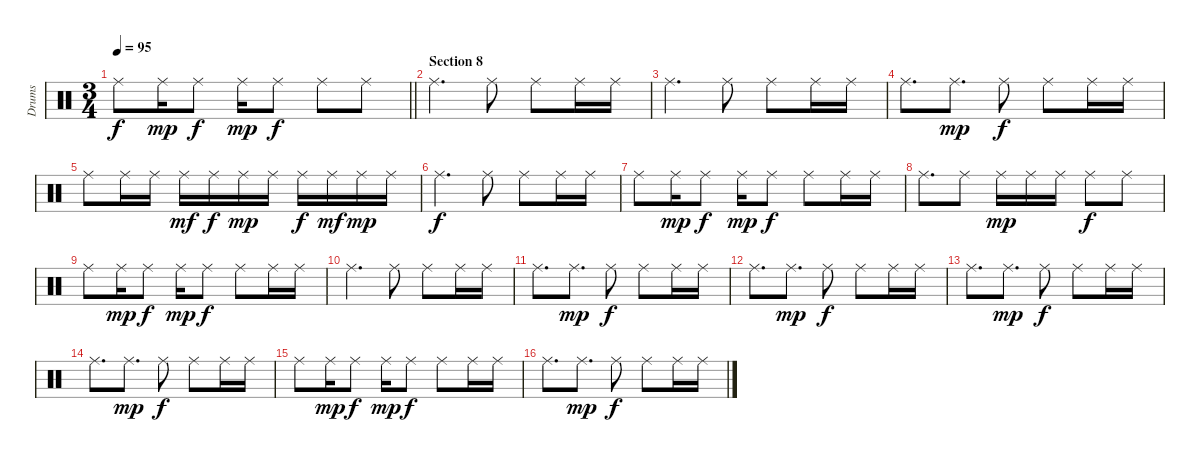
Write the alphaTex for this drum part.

\track ("Drums" "Drums") {instrument percussion}
\staff {score}
\articulation defaults
\ts (3 4)
\tempo 95
\clef neutral
\barLineRight lightlight
\ks c "Ride (middle)".8{dy f} "Ride (middle)".16{dy mp} "Ride (middle)".8{dy f} "Ride (middle)".16{dy mp} "Ride (middle)".8{dy f} "Ride (middle)".8 "Ride (middle)".8
|
\section ("" "Section 8")
"Ride (middle)".4{d} "Ride (middle)".8 "Ride (middle)".8 "Ride (middle)".16 "Ride (middle)".16 |
"Ride (middle)".4{d} "Ride (middle)".8 "Ride (middle)".8 "Ride (middle)".16 "Ride (middle)".16 |
"Ride (middle)".8{d} "Ride (middle)".8{d dy mp} "Ride (middle)".8{dy f} "Ride (middle)".8 "Ride (middle)".16 "Ride (middle)".16 |
"Ride (middle)".8 "Ride (middle)".16 "Ride (middle)".16 "Ride (middle)".16{dy mf} "Ride (middle)".16{dy f} "Ride (middle)".16{dy mp} "Ride (middle)".16 "Ride (middle)".16{dy f} "Ride (middle)".16{dy mf} "Ride (middle)".16{dy mp} "Ride (middle)".16 |
"Ride (middle)".4{d dy f} "Ride (middle)".8 "Ride (middle)".8 "Ride (middle)".16 "Ride (middle)".16 |
"Ride (middle)".8 "Ride (middle)".16{dy mp} "Ride (middle)".8{dy f} "Ride (middle)".16{dy mp} "Ride (middle)".8{dy f} "Ride (middle)".8 "Ride (middle)".16 "Ride (middle)".16 |
"Ride (middle)".8{d} "Ride (middle)".8 "Ride (middle)".16{dy mp} "Ride (middle)".16 "Ride (middle)".16 "Ride (middle)".8{dy f} "Ride (middle)".8 |
"Ride (middle)".8 "Ride (middle)".16{dy mp} "Ride (middle)".8{dy f} "Ride (middle)".16{dy mp} "Ride (middle)".8{dy f} "Ride (middle)".8 "Ride (middle)".16 "Ride (middle)".16 |
"Ride (middle)".4{d} "Ride (middle)".8 "Ride (middle)".8 "Ride (middle)".16 "Ride (middle)".16 |
"Ride (middle)".8{d} "Ride (middle)".8{d dy mp} "Ride (middle)".8{dy f} "Ride (middle)".8 "Ride (middle)".16 "Ride (middle)".16 |
"Ride (middle)".8{d} "Ride (middle)".8{d dy mp} "Ride (middle)".8{dy f} "Ride (middle)".8 "Ride (middle)".16 "Ride (middle)".16 |
"Ride (middle)".8{d} "Ride (middle)".8{d dy mp} "Ride (middle)".8{dy f} "Ride (middle)".8 "Ride (middle)".16 "Ride (middle)".16 |
"Ride (middle)".8{d} "Ride (middle)".8{d dy mp} "Ride (middle)".8{dy f} "Ride (middle)".8 "Ride (middle)".16 "Ride (middle)".16 |
"Ride (middle)".8 "Ride (middle)".16{dy mp} "Ride (middle)".8{dy f} "Ride (middle)".16{dy mp} "Ride (middle)".8{dy f} "Ride (middle)".8 "Ride (middle)".16 "Ride (middle)".16 |
"Ride (middle)".8{d} "Ride (middle)".8{d dy mp} "Ride (middle)".8{dy f} "Ride (middle)".8 "Ride (middle)".16 "Ride (middle)".16
